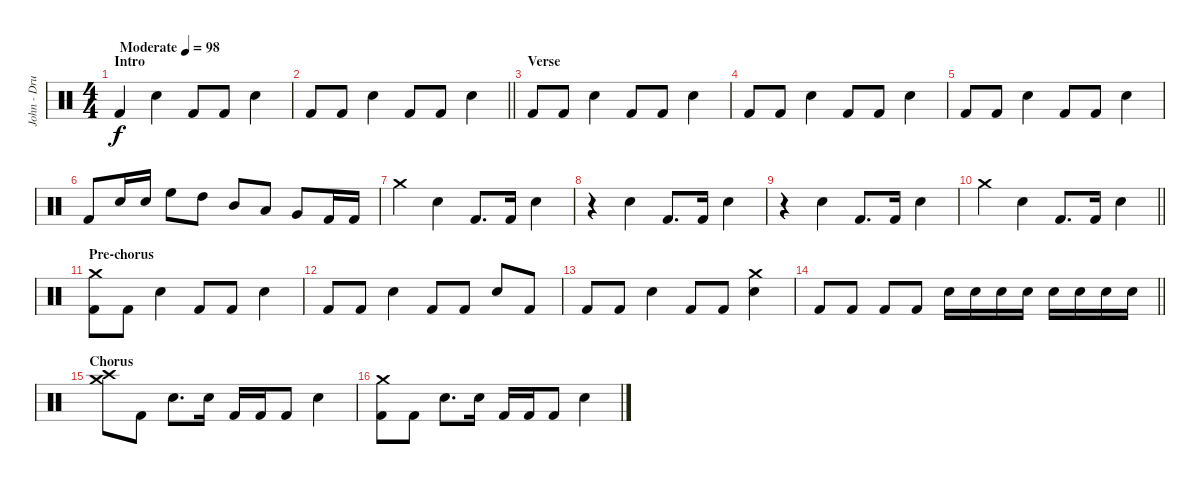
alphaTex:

\track ("John - Drums" "John - Dru") {instrument percussion}
\staff {score}
\articulation defaults
\ts (4 4)
\section ("" "Intro")
\tempo (98 "Moderate")
\clef neutral
\ks c "Kick (hit) 2".4{dy f} "Electric Snare (hit)".4 "Kick (hit) 2".8 "Kick (hit) 2".8 "Electric Snare (hit)".4
|
\barLineRight lightlight "Kick (hit) 2".8 "Kick (hit) 2".8 "Electric Snare (hit)".4 "Kick (hit) 2".8 "Kick (hit) 2".8 "Electric Snare (hit)".4
|
\section ("" "Verse")
"Kick (hit) 2".8 "Kick (hit) 2".8 "Electric Snare (hit)".4 "Kick (hit) 2".8 "Kick (hit) 2".8 "Electric Snare (hit)".4 |
"Kick (hit) 2".8 "Kick (hit) 2".8 "Electric Snare (hit)".4 "Kick (hit) 2".8 "Kick (hit) 2".8 "Electric Snare (hit)".4 |
"Kick (hit) 2".8 "Kick (hit) 2".8 "Electric Snare (hit)".4 "Kick (hit) 2".8 "Kick (hit) 2".8 "Electric Snare (hit)".4 |
"Kick (hit) 2".8 "Electric Snare (hit)".16 "Electric Snare (hit)".16 "High Floor Tom (hit)".8 "High Tom (hit)".8 "Mid Tom (hit)".8 "Low Tom (hit)".8 "Very Low Tom (hit)".8 "Kick (hit) 2".16 "Kick (hit) 2".16 |
"Crash medium (hit)".4 "Electric Snare (hit)".4 "Kick (hit) 2".8{d} "Kick (hit) 2".16 "Electric Snare (hit)".4 |
r.4 "Electric Snare (hit)".4 "Kick (hit) 2".8{d} "Kick (hit) 2".16 "Electric Snare (hit)".4 |
r.4 "Electric Snare (hit)".4 "Kick (hit) 2".8{d} "Kick (hit) 2".16 "Electric Snare (hit)".4 |
\barLineRight lightlight "Crash medium (hit)".4 "Electric Snare (hit)".4 "Kick (hit) 2".8{d} "Kick (hit) 2".16 "Electric Snare (hit)".4
|
\section ("" "Pre-chorus")
("Crash medium (hit)" "Kick (hit) 2").8 "Kick (hit) 2".8 "Electric Snare (hit)".4 "Kick (hit) 2".8 "Kick (hit) 2".8 "Electric Snare (hit)".4 |
"Kick (hit) 2".8 "Kick (hit) 2".8 "Electric Snare (hit)".4 "Kick (hit) 2".8 "Kick (hit) 2".8 "Electric Snare (hit)".8 "Kick (hit) 2".8 |
"Kick (hit) 2".8 "Kick (hit) 2".8 "Electric Snare (hit)".4 "Kick (hit) 2".8 "Kick (hit) 2".8 ("Electric Snare (hit)" "Crash medium (hit)").4 |
\barLineRight lightlight "Kick (hit) 2".8 "Kick (hit) 2".8 "Kick (hit) 2".8 "Kick (hit) 2".8 "Electric Snare (hit)".16 "Electric Snare (hit)".16 "Electric Snare (hit)".16 "Electric Snare (hit)".16 "Electric Snare (hit)".16 "Electric Snare (hit)".16 "Electric Snare (hit)".16 "Electric Snare (hit)".16
|
\section ("" "Chorus")
("Crash high (hit)" "Crash medium (hit)").8 "Kick (hit) 2".8 "Electric Snare (hit)".8{d} "Electric Snare (hit)".16 "Kick (hit) 2".16 "Kick (hit) 2".16 "Kick (hit) 2".8 "Electric Snare (hit)".4 |
("Crash medium (hit)" "Kick (hit) 2").8 "Kick (hit) 2".8 "Electric Snare (hit)".8{d} "Electric Snare (hit)".16 "Kick (hit) 2".16 "Kick (hit) 2".16 "Kick (hit) 2".8 "Electric Snare (hit)".4
